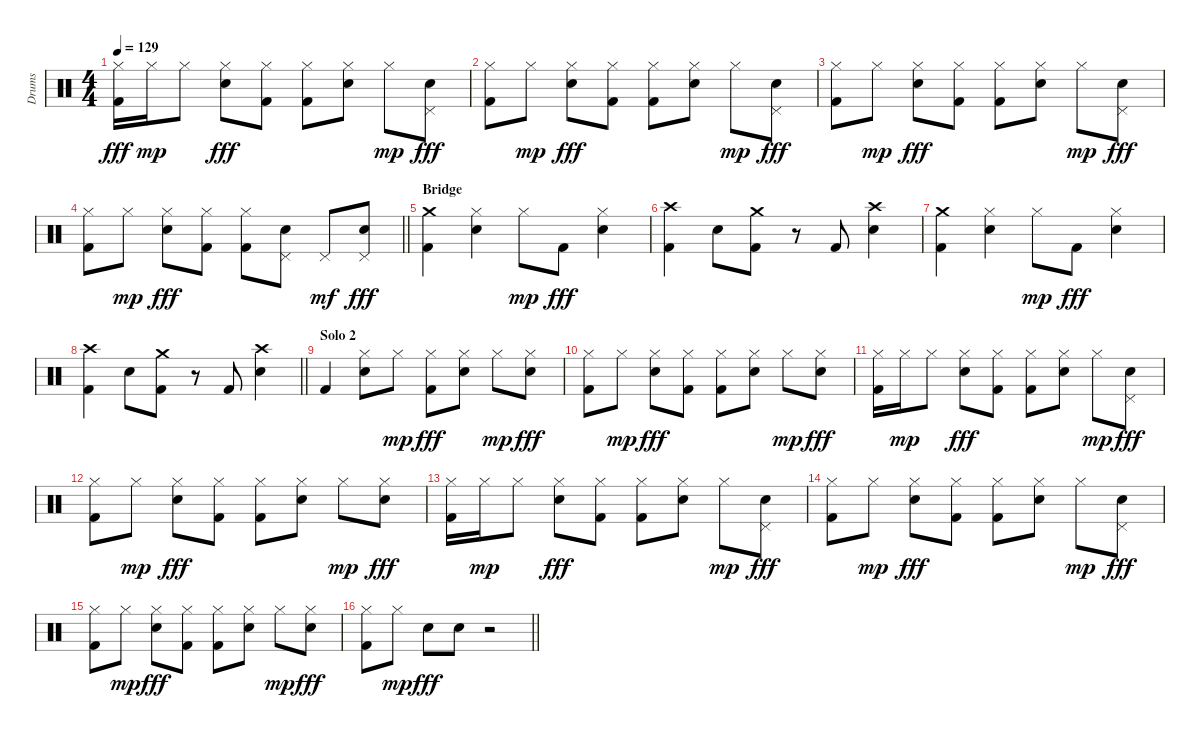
\track ("Drums" "Drums") {instrument percussion}
\staff {score}
\articulation defaults
\ts (4 4)
\tempo 129
\clef neutral
\ks c
("Hi-Hat (closed)" "Kick (hit) 2").16{dy fff} "Hi-Hat (closed)".16{dy mp} "Hi-Hat (closed)".8 ("Hi-Hat (closed)" "Electric Snare (hit)").8{dy fff} ("Hi-Hat (closed)" "Kick (hit) 2").8 ("Hi-Hat (closed)" "Kick (hit) 2").8 ("Hi-Hat (closed)" "Electric Snare (hit)").8 "Hi-Hat (closed)".8{dy mp} ("Pedal Hi-Hat (hit)" "Electric Snare (hit)").8{dy fff} |
("Hi-Hat (closed)" "Kick (hit) 2").8 "Hi-Hat (closed)".8{dy mp} ("Hi-Hat (closed)" "Electric Snare (hit)").8{dy fff} ("Hi-Hat (closed)" "Kick (hit) 2").8 ("Hi-Hat (closed)" "Kick (hit) 2").8 ("Hi-Hat (closed)" "Electric Snare (hit)").8 "Hi-Hat (closed)".8{dy mp} ("Pedal Hi-Hat (hit)" "Electric Snare (hit)").8{dy fff} |
("Hi-Hat (closed)" "Kick (hit) 2").8 "Hi-Hat (closed)".8{dy mp} ("Hi-Hat (closed)" "Electric Snare (hit)").8{dy fff} ("Hi-Hat (closed)" "Kick (hit) 2").8 ("Hi-Hat (closed)" "Kick (hit) 2").8 ("Hi-Hat (closed)" "Electric Snare (hit)").8 "Hi-Hat (closed)".8{dy mp} ("Pedal Hi-Hat (hit)" "Electric Snare (hit)").8{dy fff} |
\barLineRight lightlight
("Hi-Hat (closed)" "Kick (hit) 2").8 "Hi-Hat (closed)".8{dy mp} ("Hi-Hat (closed)" "Electric Snare (hit)").8{dy fff} ("Hi-Hat (closed)" "Kick (hit) 2").8 ("Hi-Hat (closed)" "Kick (hit) 2").8 ("Pedal Hi-Hat (hit)" "Electric Snare (hit)").8 "Pedal Hi-Hat (hit)".8{dy mf} ("Pedal Hi-Hat (hit)" "Electric Snare (hit)").8{dy fff} |
\section ("" "Bridge")
("Crash medium (hit)" "Kick (hit) 2").4 ("Hi-Hat (closed)" "Electric Snare (hit)").4 "Hi-Hat (closed)".8{dy mp} "Kick (hit) 2".8{dy fff} ("Hi-Hat (closed)" "Electric Snare (hit)").4 |
("Crash high (hit)" "Kick (hit) 2").4 "Electric Snare (hit)".8 ("Crash medium (hit)" "Kick (hit) 2").8 r.8 "Kick (hit) 2".8 ("Crash high (hit)" "Electric Snare (hit)").4 |
("Crash medium (hit)" "Kick (hit) 2").4 ("Hi-Hat (closed)" "Electric Snare (hit)").4 "Hi-Hat (closed)".8{dy mp} "Kick (hit) 2".8{dy fff} ("Hi-Hat (closed)" "Electric Snare (hit)").4 |
\barLineRight lightlight
("Crash high (hit)" "Kick (hit) 2").4 "Electric Snare (hit)".8 ("Crash medium (hit)" "Kick (hit) 2").8 r.8 "Kick (hit) 2".8 ("Crash high (hit)" "Electric Snare (hit)").4 |
\section ("" "Solo 2")
"Kick (hit) 2".4 ("Hi-Hat (closed)" "Electric Snare (hit)").8 "Hi-Hat (closed)".8{dy mp} ("Hi-Hat (closed)" "Kick (hit) 2").8{dy fff} ("Hi-Hat (closed)" "Electric Snare (hit)").8 "Hi-Hat (closed)".8{dy mp} ("Hi-Hat (closed)" "Electric Snare (hit)").8{dy fff} |
("Hi-Hat (closed)" "Kick (hit) 2").8 "Hi-Hat (closed)".8{dy mp} ("Hi-Hat (closed)" "Electric Snare (hit)").8{dy fff} ("Hi-Hat (closed)" "Kick (hit) 2").8 ("Hi-Hat (closed)" "Kick (hit) 2").8 ("Hi-Hat (closed)" "Electric Snare (hit)").8 "Hi-Hat (closed)".8{dy mp} ("Hi-Hat (closed)" "Electric Snare (hit)").8{dy fff} |
("Hi-Hat (closed)" "Kick (hit) 2").16 "Hi-Hat (closed)".16{dy mp} "Hi-Hat (closed)".8 ("Hi-Hat (closed)" "Electric Snare (hit)").8{dy fff} ("Hi-Hat (closed)" "Kick (hit) 2").8 ("Hi-Hat (closed)" "Kick (hit) 2").8 ("Hi-Hat (closed)" "Electric Snare (hit)").8 "Hi-Hat (closed)".8{dy mp} ("Pedal Hi-Hat (hit)" "Electric Snare (hit)").8{dy fff} |
("Hi-Hat (closed)" "Kick (hit) 2").8 "Hi-Hat (closed)".8{dy mp} ("Hi-Hat (closed)" "Electric Snare (hit)").8{dy fff} ("Hi-Hat (closed)" "Kick (hit) 2").8 ("Hi-Hat (closed)" "Kick (hit) 2").8 ("Hi-Hat (closed)" "Electric Snare (hit)").8 "Hi-Hat (closed)".8{dy mp} ("Hi-Hat (closed)" "Electric Snare (hit)").8{dy fff} |
("Hi-Hat (closed)" "Kick (hit) 2").16 "Hi-Hat (closed)".16{dy mp} "Hi-Hat (closed)".8 ("Hi-Hat (closed)" "Electric Snare (hit)").8{dy fff} ("Hi-Hat (closed)" "Kick (hit) 2").8 ("Hi-Hat (closed)" "Kick (hit) 2").8 ("Hi-Hat (closed)" "Electric Snare (hit)").8 "Hi-Hat (closed)".8{dy mp} ("Pedal Hi-Hat (hit)" "Electric Snare (hit)").8{dy fff} |
("Hi-Hat (closed)" "Kick (hit) 2").8 "Hi-Hat (closed)".8{dy mp} ("Hi-Hat (closed)" "Electric Snare (hit)").8{dy fff} ("Hi-Hat (closed)" "Kick (hit) 2").8 ("Hi-Hat (closed)" "Kick (hit) 2").8 ("Hi-Hat (closed)" "Electric Snare (hit)").8 "Hi-Hat (closed)".8{dy mp} ("Pedal Hi-Hat (hit)" "Electric Snare (hit)").8{dy fff} |
("Hi-Hat (closed)" "Kick (hit) 2").8 "Hi-Hat (closed)".8{dy mp} ("Hi-Hat (closed)" "Electric Snare (hit)").8{dy fff} ("Hi-Hat (closed)" "Kick (hit) 2").8 ("Hi-Hat (closed)" "Kick (hit) 2").8 ("Hi-Hat (closed)" "Electric Snare (hit)").8 "Hi-Hat (closed)".8{dy mp} ("Hi-Hat (closed)" "Electric Snare (hit)").8{dy fff} |
\barLineRight lightlight
("Hi-Hat (closed)" "Kick (hit) 2").8 "Hi-Hat (closed)".8{dy mp} "Electric Snare (hit)".8{dy fff} "Electric Snare (hit)".8 r.2
